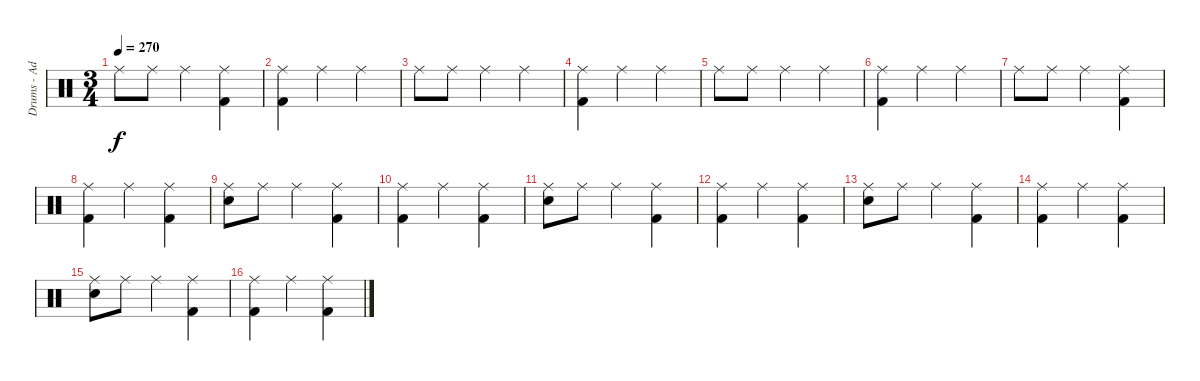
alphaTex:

\track ("Drums - Adam" "Drums - Ad") {instrument percussion}
\staff {score}
\articulation defaults
\ts (3 4)
\tempo 270
\clef neutral
\ks c "Ride (middle)".8{dy f} "Ride (middle)".8 "Ride (middle)".4
("Ride (middle)" "Kick (hit) 2").4 |
("Ride (middle)" "Kick (hit) 2").4 "Ride (middle)".4 "Ride (middle)".4 |
"Ride (middle)".8 "Ride (middle)".8 "Ride (middle)".4 "Ride (middle)".4 |
("Ride (middle)" "Kick (hit) 2").4 "Ride (middle)".4 "Ride (middle)".4 |
"Ride (middle)".8 "Ride (middle)".8 "Ride (middle)".4 "Ride (middle)".4 |
("Ride (middle)" "Kick (hit) 2").4 "Ride (middle)".4 "Ride (middle)".4 |
"Ride (middle)".8 "Ride (middle)".8 "Ride (middle)".4 ("Ride (middle)" "Kick (hit) 2").4 |
("Ride (middle)" "Kick (hit) 2").4 "Ride (middle)".4 ("Ride (middle)" "Kick (hit) 2").4 |
("Ride (middle)" "Electric Snare (hit)").8 "Ride (middle)".8 "Ride (middle)".4 ("Ride (middle)" "Kick (hit) 2").4 |
("Ride (middle)" "Kick (hit) 2").4 "Ride (middle)".4 ("Ride (middle)" "Kick (hit) 2").4 |
("Ride (middle)" "Electric Snare (hit)").8 "Ride (middle)".8 "Ride (middle)".4 ("Ride (middle)" "Kick (hit) 2").4 |
("Ride (middle)" "Kick (hit) 2").4 "Ride (middle)".4 ("Ride (middle)" "Kick (hit) 2").4 |
("Ride (middle)" "Electric Snare (hit)").8 "Ride (middle)".8 "Ride (middle)".4 ("Ride (middle)" "Kick (hit) 2").4 |
("Ride (middle)" "Kick (hit) 2").4 "Ride (middle)".4 ("Ride (middle)" "Kick (hit) 2").4 |
("Ride (middle)" "Electric Snare (hit)").8 "Ride (middle)".8 "Ride (middle)".4 ("Ride (middle)" "Kick (hit) 2").4 |
("Ride (middle)" "Kick (hit) 2").4 "Ride (middle)".4 ("Ride (middle)" "Kick (hit) 2").4
